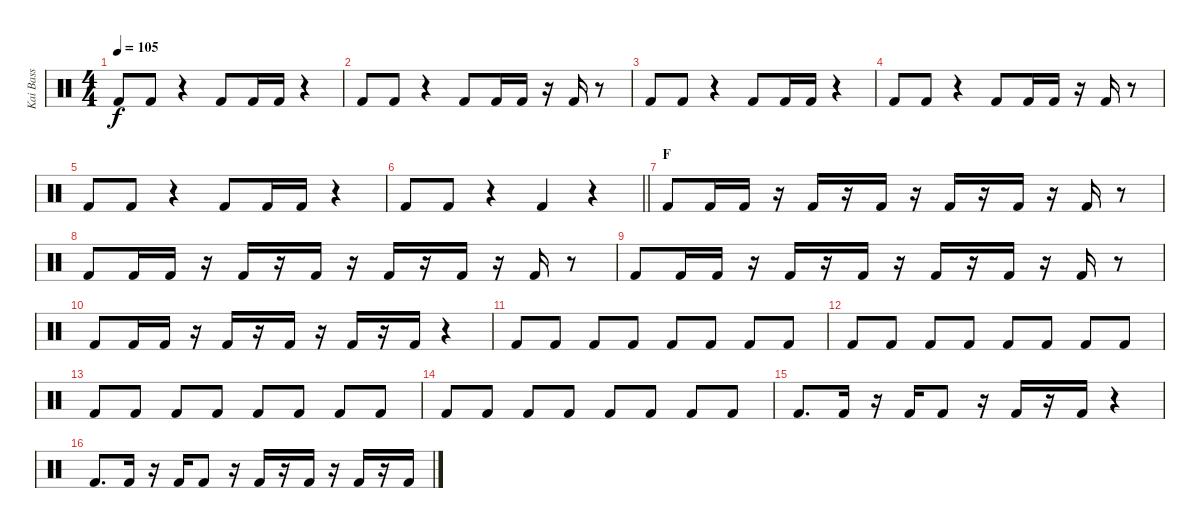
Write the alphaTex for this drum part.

\track ("Kai Bass" "Kai Bass") {instrument percussion}
\staff {score}
\articulation defaults
\ts (4 4)
\tempo 105
\clef neutral
\ks c "Kick (hit) 2".8{dy f} "Kick (hit) 2".8
r.4 "Kick (hit) 2".8 "Kick (hit) 2".16 "Kick (hit) 2".16 r.4 |
"Kick (hit) 2".8 "Kick (hit) 2".8 r.4 "Kick (hit) 2".8 "Kick (hit) 2".16 "Kick (hit) 2".16 r.16 "Kick (hit) 2".16 r.8 |
"Kick (hit) 2".8 "Kick (hit) 2".8 r.4 "Kick (hit) 2".8 "Kick (hit) 2".16 "Kick (hit) 2".16 r.4 |
"Kick (hit) 2".8 "Kick (hit) 2".8 r.4 "Kick (hit) 2".8 "Kick (hit) 2".16 "Kick (hit) 2".16 r.16 "Kick (hit) 2".16 r.8 |
"Kick (hit) 2".8 "Kick (hit) 2".8 r.4 "Kick (hit) 2".8 "Kick (hit) 2".16 "Kick (hit) 2".16 r.4 |
\barLineRight lightlight "Kick (hit) 2".8 "Kick (hit) 2".8
r.4 "Kick (hit) 2".4 r.4 |
\section ("" "F")
"Kick (hit) 2".8 "Kick (hit) 2".16 "Kick (hit) 2".16 r.16 "Kick (hit) 2".16 r.16 "Kick (hit) 2".16 r.16 "Kick (hit) 2".16 r.16 "Kick (hit) 2".16 r.16 "Kick (hit) 2".16 r.8 |
"Kick (hit) 2".8 "Kick (hit) 2".16 "Kick (hit) 2".16 r.16 "Kick (hit) 2".16 r.16 "Kick (hit) 2".16 r.16 "Kick (hit) 2".16 r.16 "Kick (hit) 2".16 r.16 "Kick (hit) 2".16 r.8 |
"Kick (hit) 2".8 "Kick (hit) 2".16 "Kick (hit) 2".16 r.16 "Kick (hit) 2".16 r.16 "Kick (hit) 2".16 r.16 "Kick (hit) 2".16 r.16 "Kick (hit) 2".16 r.16 "Kick (hit) 2".16 r.8 |
"Kick (hit) 2".8 "Kick (hit) 2".16 "Kick (hit) 2".16 r.16 "Kick (hit) 2".16 r.16 "Kick (hit) 2".16 r.16 "Kick (hit) 2".16 r.16 "Kick (hit) 2".16 r.4 |
"Kick (hit) 2".8{volume 0} "Kick (hit) 2".8{volume 13} "Kick (hit) 2".8 "Kick (hit) 2".8 "Kick (hit) 2".8 "Kick (hit) 2".8 "Kick (hit) 2".8 "Kick (hit) 2".8 |
"Kick (hit) 2".8 "Kick (hit) 2".8 "Kick (hit) 2".8 "Kick (hit) 2".8 "Kick (hit) 2".8 "Kick (hit) 2".8 "Kick (hit) 2".8 "Kick (hit) 2".8 |
"Kick (hit) 2".8 "Kick (hit) 2".8 "Kick (hit) 2".8 "Kick (hit) 2".8 "Kick (hit) 2".8 "Kick (hit) 2".8 "Kick (hit) 2".8 "Kick (hit) 2".8 |
"Kick (hit) 2".8 "Kick (hit) 2".8 "Kick (hit) 2".8 "Kick (hit) 2".8 "Kick (hit) 2".8 "Kick (hit) 2".8 "Kick (hit) 2".8 "Kick (hit) 2".8 |
"Kick (hit) 2".8{d} "Kick (hit) 2".16 r.16 "Kick (hit) 2".16 "Kick (hit) 2".8 r.16 "Kick (hit) 2".16 r.16 "Kick (hit) 2".16 r.4 |
"Kick (hit) 2".8{d} "Kick (hit) 2".16 r.16 "Kick (hit) 2".16 "Kick (hit) 2".8 r.16 "Kick (hit) 2".16 r.16 "Kick (hit) 2".16 r.16 "Kick (hit) 2".16 r.16 "Kick (hit) 2".16
